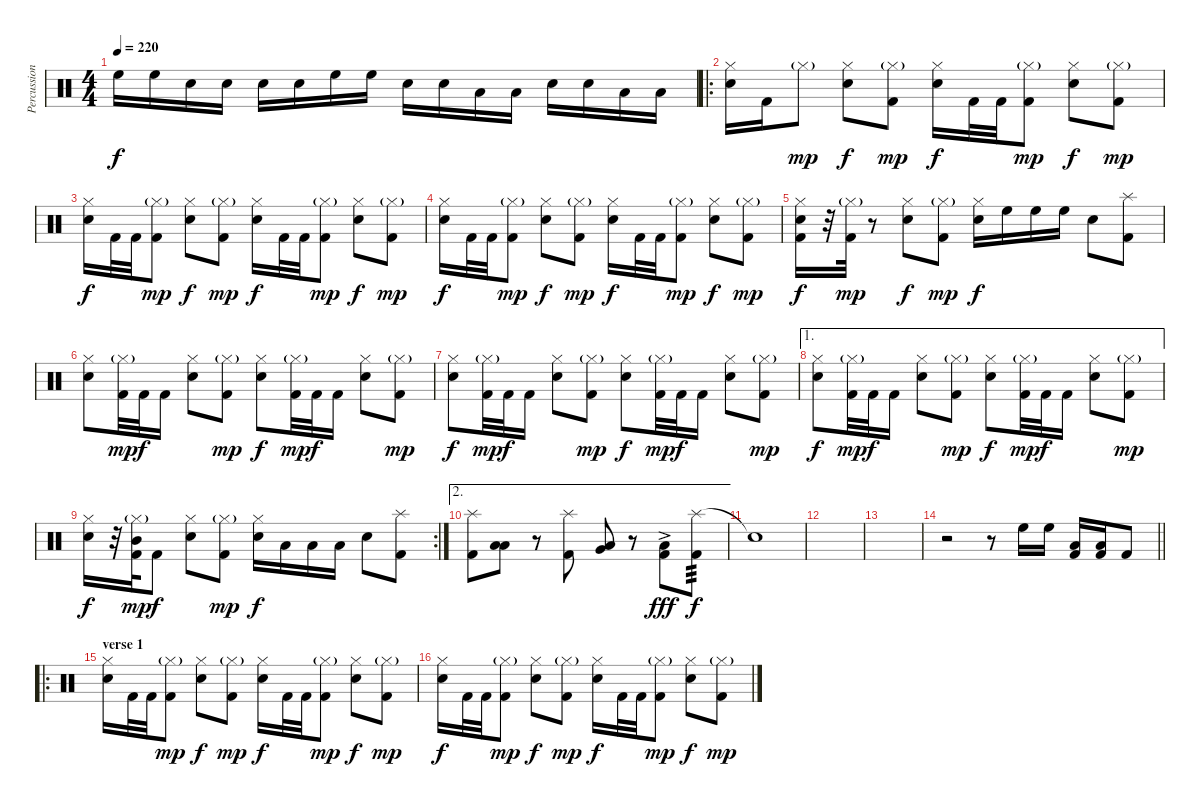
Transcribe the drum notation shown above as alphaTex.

\track ("Percussion" "Percussion") {instrument percussion}
\staff {score}
\articulation defaults
\ts (4 4)
\tempo 220
\clef neutral
\ks c "High Floor Tom (hit)".16{dy f} "High Floor Tom (hit)".16 "Electric Snare (hit)".16 "Electric Snare (hit)".16 "Electric Snare (hit)".16 "Electric Snare (hit)".16 "High Floor Tom (hit)".16 "High Floor Tom (hit)".16 "Electric Snare (hit)".16 "Electric Snare (hit)".16 "Low Tom (hit)".16 "Low Tom (hit)".16 "Electric Snare (hit)".16 "Electric Snare (hit)".16 "Low Floor Tom (hit)".16 "Low Floor Tom (hit)".16
|
\ro
("Hi-Hat (closed)" "Electric Snare (hit)").16 "Kick (hit) 2".16 "Hi-Hat (closed)"{g}.8{dy mp} ("Hi-Hat (closed)" "Electric Snare (hit)").8{dy f} ("Hi-Hat (closed)"{g} "Kick (hit) 2").8{dy mp} ("Hi-Hat (closed)" "Electric Snare (hit)").16{dy f} "Kick (hit) 2".32 "Kick (hit) 2".32 ("Hi-Hat (closed)"{g} "Kick (hit) 2").8{dy mp} ("Hi-Hat (closed)" "Electric Snare (hit)").8{dy f} ("Hi-Hat (closed)"{g} "Kick (hit) 2").8{dy mp} |
("Hi-Hat (closed)" "Electric Snare (hit)").16{dy f} "Kick (hit) 2".32 "Kick (hit) 2".32 ("Hi-Hat (closed)"{g} "Kick (hit) 2").8{dy mp} ("Hi-Hat (closed)" "Electric Snare (hit)").8{dy f} ("Hi-Hat (closed)"{g} "Kick (hit) 2").8{dy mp} ("Hi-Hat (closed)" "Electric Snare (hit)").16{dy f} "Kick (hit) 2".32 "Kick (hit) 2".32 ("Hi-Hat (closed)"{g} "Kick (hit) 2").8{dy mp} ("Hi-Hat (closed)" "Electric Snare (hit)").8{dy f} ("Hi-Hat (closed)"{g} "Kick (hit) 2").8{dy mp} |
("Hi-Hat (closed)" "Electric Snare (hit)").16{dy f} "Kick (hit) 2".32 "Kick (hit) 2".32 ("Hi-Hat (closed)"{g} "Kick (hit) 2").8{dy mp} ("Hi-Hat (closed)" "Electric Snare (hit)").8{dy f} ("Hi-Hat (closed)"{g} "Kick (hit) 2").8{dy mp} ("Hi-Hat (closed)" "Electric Snare (hit)").16{dy f} "Kick (hit) 2".32 "Kick (hit) 2".32 ("Hi-Hat (closed)"{g} "Kick (hit) 2").8{dy mp} ("Hi-Hat (closed)" "Electric Snare (hit)").8{dy f} ("Hi-Hat (closed)"{g} "Kick (hit) 2").8{dy mp} |
("Hi-Hat (closed)" "Electric Snare (hit)" "Kick (hit) 2").16{dy f} r.32 ("Hi-Hat (closed)"{g} "Kick (hit) 2").32{dy mp} r.8 ("Hi-Hat (closed)" "Electric Snare (hit)").8{dy f} ("Hi-Hat (closed)"{g} "Kick (hit) 2").8{dy mp} ("Hi-Hat (closed)" "Electric Snare (hit)").16{dy f} "High Floor Tom (hit)".16 "High Floor Tom (hit)".16 "High Floor Tom (hit)".16 "Electric Snare (hit)".8 ("Splash (hit)" "Kick (hit) 2").8 |
("Hi-Hat (closed)" "Electric Snare (hit)").8 ("Hi-Hat (closed)"{g} "Kick (hit) 2").32{dy mp} "Kick (hit) 2".32{dy f} "Kick (hit) 2".16 ("Hi-Hat (closed)" "Electric Snare (hit)").8 ("Hi-Hat (closed)"{g} "Kick (hit) 2").8{dy mp} ("Hi-Hat (closed)" "Electric Snare (hit)").8{dy f} ("Hi-Hat (closed)"{g} "Kick (hit) 2").32{dy mp} "Kick (hit) 2".32{dy f} "Kick (hit) 2".16 ("Hi-Hat (closed)" "Electric Snare (hit)").8 ("Hi-Hat (closed)"{g} "Kick (hit) 2").8{dy mp} |
("Hi-Hat (closed)" "Electric Snare (hit)").8{dy f} ("Hi-Hat (closed)"{g} "Kick (hit) 2").32{dy mp} "Kick (hit) 2".32{dy f} "Kick (hit) 2".16 ("Hi-Hat (closed)" "Electric Snare (hit)").8 ("Hi-Hat (closed)"{g} "Kick (hit) 2").8{dy mp} ("Hi-Hat (closed)" "Electric Snare (hit)").8{dy f} ("Hi-Hat (closed)"{g} "Kick (hit) 2").32{dy mp} "Kick (hit) 2".32{dy f} "Kick (hit) 2".16 ("Hi-Hat (closed)" "Electric Snare (hit)").8 ("Hi-Hat (closed)"{g} "Kick (hit) 2").8{dy mp} |
\ae 1
("Hi-Hat (closed)" "Electric Snare (hit)").8{dy f} ("Hi-Hat (closed)"{g} "Kick (hit) 2").32{dy mp} "Kick (hit) 2".32{dy f} "Kick (hit) 2".16 ("Hi-Hat (closed)" "Electric Snare (hit)").8 ("Hi-Hat (closed)"{g} "Kick (hit) 2").8{dy mp} ("Hi-Hat (closed)" "Electric Snare (hit)").8{dy f} ("Hi-Hat (closed)"{g} "Kick (hit) 2").32{dy mp} "Kick (hit) 2".32{dy f} "Kick (hit) 2".16 ("Hi-Hat (closed)" "Electric Snare (hit)").8 ("Hi-Hat (closed)"{g} "Kick (hit) 2").8{dy mp} |
\rc 2
("Hi-Hat (closed)" "Electric Snare (hit)").16{dy f} r.32 ("Hi-Hat (closed)"{g} "Mid Tom (hit)" "Kick (hit) 2").32{dy mp} "Kick (hit) 2".8{dy f} ("Hi-Hat (closed)" "Electric Snare (hit)").8 ("Hi-Hat (closed)"{g} "Kick (hit) 2").8{dy mp} ("Hi-Hat (closed)" "Electric Snare (hit)").16{dy f} "Low Tom (hit)".16 "Low Tom (hit)".16 "Low Tom (hit)".16 "Electric Snare (hit)".8 ("Splash (hit)" "Kick (hit) 2").8 |
\ae 2
("Splash (hit)" "Kick (hit) 2").8 ("Low Tom (hit)" "Low Floor Tom (hit)").8 r.8 ("Splash (hit)" "Kick (hit) 2").8 ("Very Low Tom (hit)" "Low Floor Tom (hit)").8 r.8 ("Low Floor Tom (hit)"{ac} "Kick (hit) 2").8{dy fff} ("Splash (hit)" "Kick (hit) 2").8{tp 3 dy f volume 0} |
"Snare (hit)"{t}.1 |
|
|
\barLineRight lightlight
r.2 r.8 "High Floor Tom (hit)".16{volume 16} "High Floor Tom (hit)".16 ("Low Tom (hit)" "Kick (hit) 2").16 ("Low Tom (hit)" "Kick (hit) 2").16 "Kick (hit) 2".8 |
\ro
\section ("" "verse 1")
("Hi-Hat (closed)" "Electric Snare (hit)").16 "Kick (hit) 2".32 "Kick (hit) 2".32 ("Hi-Hat (closed)"{g} "Kick (hit) 2").8{dy mp} ("Hi-Hat (closed)" "Electric Snare (hit)").8{dy f} ("Hi-Hat (closed)"{g} "Kick (hit) 2").8{dy mp} ("Hi-Hat (closed)" "Electric Snare (hit)").16{dy f} "Kick (hit) 2".32 "Kick (hit) 2".32 ("Hi-Hat (closed)"{g} "Kick (hit) 2").8{dy mp} ("Hi-Hat (closed)" "Electric Snare (hit)").8{dy f} ("Hi-Hat (closed)"{g} "Kick (hit) 2").8{dy mp} |
("Hi-Hat (closed)" "Electric Snare (hit)").16{dy f} "Kick (hit) 2".32 "Kick (hit) 2".32 ("Hi-Hat (closed)"{g} "Kick (hit) 2").8{dy mp} ("Hi-Hat (closed)" "Electric Snare (hit)").8{dy f} ("Hi-Hat (closed)"{g} "Kick (hit) 2").8{dy mp} ("Hi-Hat (closed)" "Electric Snare (hit)").16{dy f} "Kick (hit) 2".32 "Kick (hit) 2".32 ("Hi-Hat (closed)"{g} "Kick (hit) 2").8{dy mp} ("Hi-Hat (closed)" "Electric Snare (hit)").8{dy f} ("Hi-Hat (closed)"{g} "Kick (hit) 2").8{dy mp}
